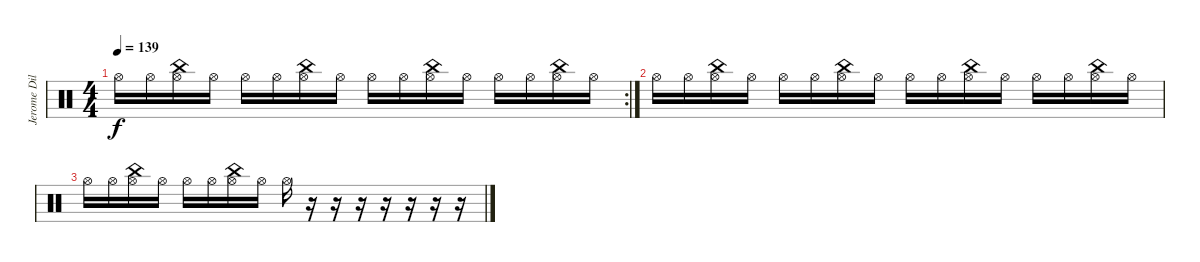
\track ("Jerome Dillon - Batería 2" "Jerome Dil") {instrument percussion}
\staff {score}
\articulation defaults
\rc 2
\ts (4 4)
\tempo 139
\clef neutral
\ks c "Hi-Hat (open)".16{dy f} "Hi-Hat (open)".16
("Hi-Hat (open)" "China (hit)").16 "Hi-Hat (open)".16 "Hi-Hat (open)".16 "Hi-Hat (open)".16 ("Hi-Hat (open)" "China (hit)").16 "Hi-Hat (open)".16 "Hi-Hat (open)".16 "Hi-Hat (open)".16 ("Hi-Hat (open)" "China (hit)").16 "Hi-Hat (open)".16 "Hi-Hat (open)".16 "Hi-Hat (open)".16 ("Hi-Hat (open)" "China (hit)").16 "Hi-Hat (open)".16 |
"Hi-Hat (open)".16 "Hi-Hat (open)".16 ("Hi-Hat (open)" "China (hit)").16 "Hi-Hat (open)".16 "Hi-Hat (open)".16 "Hi-Hat (open)".16 ("Hi-Hat (open)" "China (hit)").16 "Hi-Hat (open)".16 "Hi-Hat (open)".16 "Hi-Hat (open)".16 ("Hi-Hat (open)" "China (hit)").16 "Hi-Hat (open)".16 "Hi-Hat (open)".16 "Hi-Hat (open)".16 ("Hi-Hat (open)" "China (hit)").16 "Hi-Hat (open)".16 |
"Hi-Hat (open)".16 "Hi-Hat (open)".16 ("Hi-Hat (open)" "China (hit)").16 "Hi-Hat (open)".16 "Hi-Hat (open)".16 "Hi-Hat (open)".16 ("Hi-Hat (open)" "China (hit)").16 "Hi-Hat (open)".16 "Hi-Hat (open)".16 r.16 r.16 r.16 r.16 r.16 r.16 r.16
